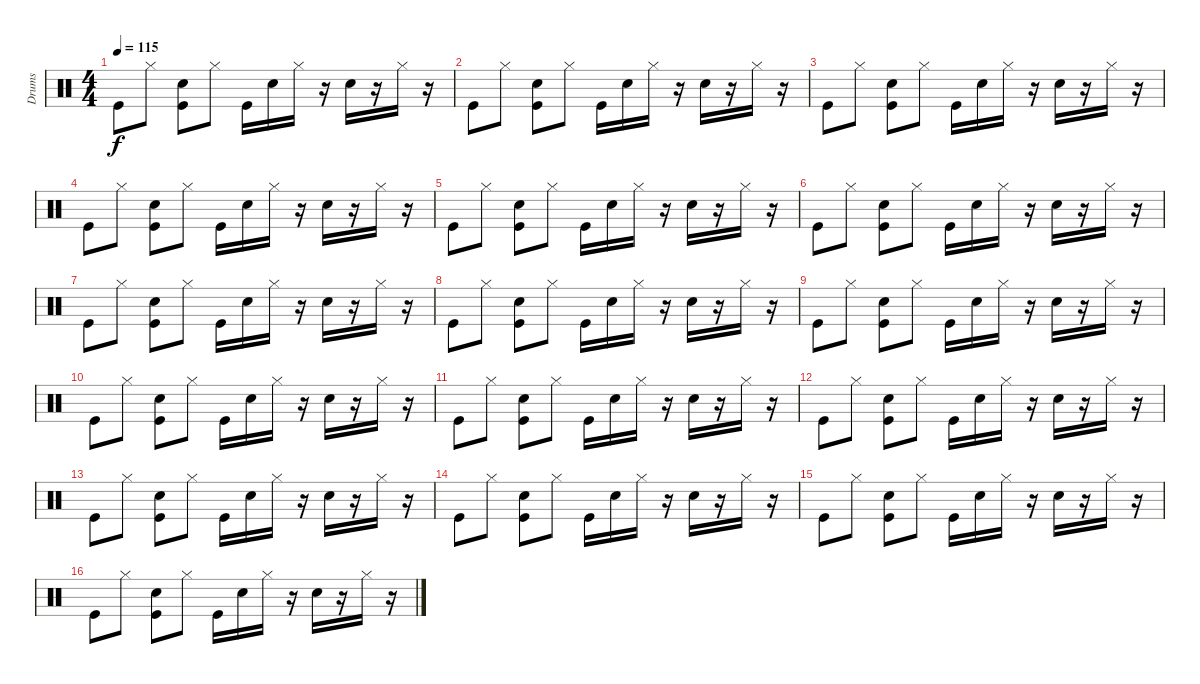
\track ("Drums" "Drums") {instrument percussion}
\staff {score}
\articulation defaults
\ts (4 4)
\tempo 115
\clef neutral
\ks c "Kick (hit)".8{dy f} "Hi-Hat (closed)".8
("Electric Snare (hit)" "Kick (hit)").8 "Hi-Hat (closed)".8 "Kick (hit)".16 "Electric Snare (hit)".16 "Hi-Hat (closed)".16 r.16 "Electric Snare (hit)".16 r.16 "Hi-Hat (closed)".16 r.16 |
"Kick (hit)".8 "Hi-Hat (closed)".8 ("Electric Snare (hit)" "Kick (hit)").8 "Hi-Hat (closed)".8 "Kick (hit)".16 "Electric Snare (hit)".16 "Hi-Hat (closed)".16 r.16 "Electric Snare (hit)".16 r.16 "Hi-Hat (closed)".16 r.16 |
"Kick (hit)".8 "Hi-Hat (closed)".8 ("Electric Snare (hit)" "Kick (hit)").8 "Hi-Hat (closed)".8 "Kick (hit)".16 "Electric Snare (hit)".16 "Hi-Hat (closed)".16 r.16 "Electric Snare (hit)".16 r.16 "Hi-Hat (closed)".16 r.16 |
"Kick (hit)".8 "Hi-Hat (closed)".8 ("Electric Snare (hit)" "Kick (hit)").8 "Hi-Hat (closed)".8 "Kick (hit)".16 "Electric Snare (hit)".16 "Hi-Hat (closed)".16 r.16 "Electric Snare (hit)".16 r.16 "Hi-Hat (closed)".16 r.16 |
"Kick (hit)".8 "Hi-Hat (closed)".8 ("Electric Snare (hit)" "Kick (hit)").8 "Hi-Hat (closed)".8 "Kick (hit)".16 "Electric Snare (hit)".16 "Hi-Hat (closed)".16 r.16 "Electric Snare (hit)".16 r.16 "Hi-Hat (closed)".16 r.16 |
"Kick (hit)".8 "Hi-Hat (closed)".8 ("Electric Snare (hit)" "Kick (hit)").8 "Hi-Hat (closed)".8 "Kick (hit)".16 "Electric Snare (hit)".16 "Hi-Hat (closed)".16 r.16 "Electric Snare (hit)".16 r.16 "Hi-Hat (closed)".16 r.16 |
"Kick (hit)".8 "Hi-Hat (closed)".8 ("Electric Snare (hit)" "Kick (hit)").8 "Hi-Hat (closed)".8 "Kick (hit)".16 "Electric Snare (hit)".16 "Hi-Hat (closed)".16 r.16 "Electric Snare (hit)".16 r.16 "Hi-Hat (closed)".16 r.16 |
"Kick (hit)".8 "Hi-Hat (closed)".8 ("Electric Snare (hit)" "Kick (hit)").8 "Hi-Hat (closed)".8 "Kick (hit)".16 "Electric Snare (hit)".16 "Hi-Hat (closed)".16 r.16 "Electric Snare (hit)".16 r.16 "Hi-Hat (closed)".16 r.16 |
"Kick (hit)".8 "Hi-Hat (closed)".8 ("Electric Snare (hit)" "Kick (hit)").8 "Hi-Hat (closed)".8 "Kick (hit)".16 "Electric Snare (hit)".16 "Hi-Hat (closed)".16 r.16 "Electric Snare (hit)".16 r.16 "Hi-Hat (closed)".16 r.16 |
"Kick (hit)".8 "Hi-Hat (closed)".8 ("Electric Snare (hit)" "Kick (hit)").8 "Hi-Hat (closed)".8 "Kick (hit)".16 "Electric Snare (hit)".16 "Hi-Hat (closed)".16 r.16 "Electric Snare (hit)".16 r.16 "Hi-Hat (closed)".16 r.16 |
"Kick (hit)".8 "Hi-Hat (closed)".8 ("Electric Snare (hit)" "Kick (hit)").8 "Hi-Hat (closed)".8 "Kick (hit)".16 "Electric Snare (hit)".16 "Hi-Hat (closed)".16 r.16 "Electric Snare (hit)".16 r.16 "Hi-Hat (closed)".16 r.16 |
"Kick (hit)".8 "Hi-Hat (closed)".8 ("Electric Snare (hit)" "Kick (hit)").8 "Hi-Hat (closed)".8 "Kick (hit)".16 "Electric Snare (hit)".16 "Hi-Hat (closed)".16 r.16 "Electric Snare (hit)".16 r.16 "Hi-Hat (closed)".16 r.16 |
"Kick (hit)".8 "Hi-Hat (closed)".8 ("Electric Snare (hit)" "Kick (hit)").8 "Hi-Hat (closed)".8 "Kick (hit)".16 "Electric Snare (hit)".16 "Hi-Hat (closed)".16 r.16 "Electric Snare (hit)".16 r.16 "Hi-Hat (closed)".16 r.16 |
"Kick (hit)".8 "Hi-Hat (closed)".8 ("Electric Snare (hit)" "Kick (hit)").8 "Hi-Hat (closed)".8 "Kick (hit)".16 "Electric Snare (hit)".16 "Hi-Hat (closed)".16 r.16 "Electric Snare (hit)".16 r.16 "Hi-Hat (closed)".16 r.16 |
"Kick (hit)".8 "Hi-Hat (closed)".8 ("Electric Snare (hit)" "Kick (hit)").8 "Hi-Hat (closed)".8 "Kick (hit)".16 "Electric Snare (hit)".16 "Hi-Hat (closed)".16 r.16 "Electric Snare (hit)".16 r.16 "Hi-Hat (closed)".16 r.16 |
"Kick (hit)".8 "Hi-Hat (closed)".8 ("Electric Snare (hit)" "Kick (hit)").8 "Hi-Hat (closed)".8 "Kick (hit)".16 "Electric Snare (hit)".16 "Hi-Hat (closed)".16 r.16 "Electric Snare (hit)".16 r.16 "Hi-Hat (closed)".16 r.16
